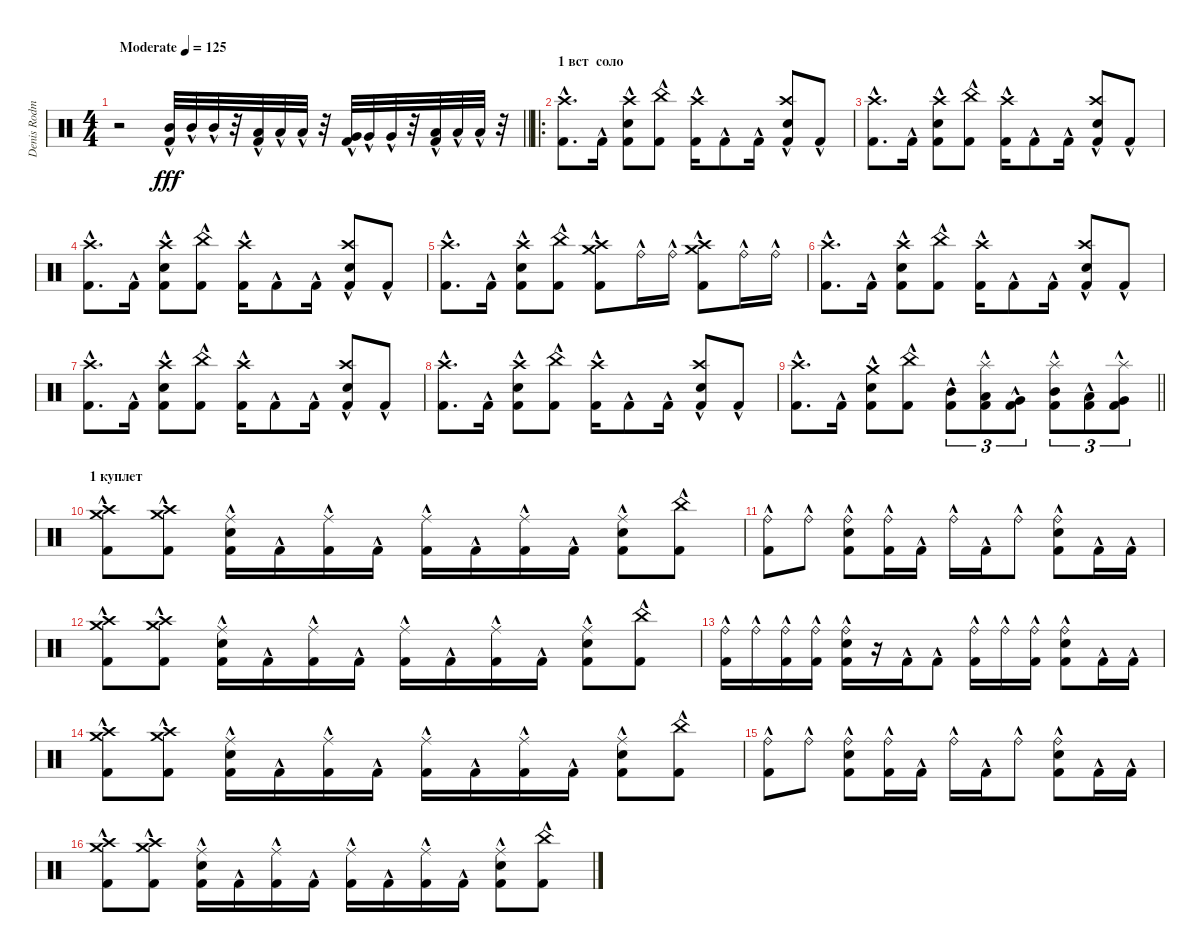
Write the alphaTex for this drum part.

\track ("Denis Rodman" "Denis Rodm") {instrument percussion}
\staff {score}
\articulation defaults
\ts (4 4)
\tempo (125 "Moderate")
\clef neutral
\barLineRight lightlight
\ks c
r.2{dy fff} ("Mid Tom (hit)"{hac} "Kick (hit) 2"{hac}).32 "Mid Tom (hit)"{hac}.32 "Mid Tom (hit)"{hac}.32 r.32 ("Low Tom (hit)"{hac} "Kick (hit) 2"{hac}).32 "Low Tom (hit)"{hac}.32 "Low Tom (hit)"{hac}.32 r.32 ("Very Low Tom (hit)"{hac} "Kick (hit) 2"{hac}).32 "Very Low Tom (hit)"{hac}.32 "Very Low Tom (hit)"{hac}.32 r.32 ("Low Floor Tom (hit)"{hac} "Kick (hit) 2"{hac}).32 "Low Floor Tom (hit)"{hac}.32 "Low Floor Tom (hit)"{hac}.32 r.32 |
\ro
\section ("" "1 вст  соло")
("Kick (hit) 2"{hac} "Crash high (hit)").8{d} "Kick (hit) 2"{hac}.16 ("Kick (hit) 2"{hac} "Snare (hit) 2" "Crash high (hit)").8 ("Kick (hit) 2"{hac} "China (hit)"{hac}).8 ("Kick (hit) 2"{hac} "Crash high (hit)").16 "Kick (hit) 2"{hac}.8 "Kick (hit) 2"{hac}.16 ("Kick (hit) 2"{hac} "Snare (hit) 2" "Crash high (hit)").8 "Kick (hit) 2"{hac}.8 |
("Kick (hit) 2"{hac} "Crash high (hit)").8{d} "Kick (hit) 2"{hac}.16 ("Kick (hit) 2"{hac} "Snare (hit) 2" "Crash high (hit)").8 ("Kick (hit) 2"{hac} "China (hit)"{hac}).8 ("Kick (hit) 2"{hac} "Crash high (hit)").16 "Kick (hit) 2"{hac}.8 "Kick (hit) 2"{hac}.16 ("Kick (hit) 2"{hac} "Snare (hit) 2" "Crash high (hit)").8 "Kick (hit) 2"{hac}.8 |
("Kick (hit) 2"{hac} "Crash high (hit)").8{d} "Kick (hit) 2"{hac}.16 ("Kick (hit) 2"{hac} "Snare (hit) 2" "Crash high (hit)").8 ("Kick (hit) 2"{hac} "China (hit)"{hac}).8 ("Kick (hit) 2"{hac} "Crash high (hit)").16 "Kick (hit) 2"{hac}.8 "Kick (hit) 2"{hac}.16 ("Kick (hit) 2"{hac} "Snare (hit) 2" "Crash high (hit)").8 "Kick (hit) 2"{hac}.8 |
("Kick (hit) 2"{hac} "Crash high (hit)").8{d} "Kick (hit) 2"{hac}.16 ("Kick (hit) 2"{hac} "Snare (hit) 2" "Crash high (hit)").8 ("Kick (hit) 2"{hac} "China (hit)"{hac}).8 ("Crash high (hit)" "Crash medium (hit)" "Kick (hit) 2"{hac}).8 "Ride (bell)"{hac}.16 "Ride (bell)"{hac}.16 ("Crash high (hit)"{hac} "Crash medium (hit)"{hac} "Kick (hit) 2"{hac}).8 "Ride (bell)"{hac}.16 "Ride (bell)"{hac}.16 |
("Kick (hit) 2"{hac} "Crash high (hit)").8{d} "Kick (hit) 2"{hac}.16 ("Kick (hit) 2"{hac} "Snare (hit) 2" "Crash high (hit)").8 ("Kick (hit) 2"{hac} "China (hit)"{hac}).8 ("Kick (hit) 2"{hac} "Crash high (hit)").16 "Kick (hit) 2"{hac}.8 "Kick (hit) 2"{hac}.16 ("Kick (hit) 2"{hac} "Snare (hit) 2" "Crash high (hit)").8 "Kick (hit) 2"{hac}.8 |
("Kick (hit) 2"{hac} "Crash high (hit)").8{d} "Kick (hit) 2"{hac}.16 ("Kick (hit) 2"{hac} "Snare (hit) 2" "Crash high (hit)").8 ("Kick (hit) 2"{hac} "China (hit)"{hac}).8 ("Kick (hit) 2"{hac} "Crash high (hit)").16 "Kick (hit) 2"{hac}.8 "Kick (hit) 2"{hac}.16 ("Kick (hit) 2"{hac} "Snare (hit) 2" "Crash high (hit)").8 "Kick (hit) 2"{hac}.8 |
("Kick (hit) 2"{hac} "Crash high (hit)").8{d} "Kick (hit) 2"{hac}.16 ("Kick (hit) 2"{hac} "Snare (hit) 2" "Crash high (hit)").8 ("Kick (hit) 2"{hac} "China (hit)"{hac}).8 ("Kick (hit) 2"{hac} "Crash high (hit)").16 "Kick (hit) 2"{hac}.8 "Kick (hit) 2"{hac}.16 ("Kick (hit) 2"{hac} "Snare (hit) 2" "Crash high (hit)").8 "Kick (hit) 2"{hac}.8 |
\barLineRight lightlight
("Kick (hit) 2"{hac} "Crash high (hit)").8{d} "Kick (hit) 2"{hac}.16 ("Kick (hit) 2"{hac} "Snare (hit) 2" "Crash medium (hit)").8 ("Kick (hit) 2"{hac} "China (hit)"{hac}).8 ("Kick (hit) 2"{hac} "Mid Tom (hit)").8{tu (3 2)} ("Low Tom (hit)"{hac} "Kick (hit) 2" "Splash (hit)").8{tu (3 2)} ("Very Low Tom (hit)"{hac} "Kick (hit) 2").8{tu (3 2)} ("Kick (hit) 2"{hac} "Mid Tom (hit)" "Splash (hit)").8{tu (3 2)} ("Low Tom (hit)"{hac} "Kick (hit) 2").8{tu (3 2)} ("Very Low Tom (hit)"{hac} "Kick (hit) 2" "Splash (hit)").8{tu (3 2)} |
\section ("" "1 куплет")
("Kick (hit) 2"{hac} "Crash high (hit)" "Crash medium (hit)").8 ("Kick (hit) 2"{hac} "Crash high (hit)" "Crash medium (hit)").8 ("Kick (hit) 2"{hac} "Snare (hit) 2" "Ride (middle)").16 "Kick (hit) 2"{hac}.16 ("Kick (hit) 2"{hac} "Ride (middle)").16 "Kick (hit) 2"{hac}.16 ("Kick (hit) 2"{hac} "Ride (middle)").16 "Kick (hit) 2"{hac}.16 ("Kick (hit) 2"{hac} "Ride (middle)").16 "Kick (hit) 2"{hac}.16 ("Kick (hit) 2"{hac} "Snare (hit) 2" "Ride (middle)").8 ("Kick (hit) 2"{hac} "China (hit)").8 |
("Kick (hit) 2"{hac} "Ride (bell)"{hac}).8 "Ride (bell)"{hac}.8 ("Kick (hit) 2"{hac} "Snare (hit) 2" "Ride (bell)"{hac}).8 ("Kick (hit) 2"{hac} "Ride (bell)"{hac}).16 "Kick (hit) 2"{hac}.16 "Ride (bell)"{hac}.16 "Kick (hit) 2"{hac}.16 "Ride (bell)"{hac}.8 ("Kick (hit) 2"{hac} "Snare (hit) 2" "Ride (bell)"{hac}).8 "Kick (hit) 2"{hac}.16 "Kick (hit) 2"{hac}.16 |
("Kick (hit) 2"{hac} "Crash high (hit)" "Crash medium (hit)").8 ("Kick (hit) 2"{hac} "Crash high (hit)" "Crash medium (hit)").8 ("Kick (hit) 2"{hac} "Snare (hit) 2" "Ride (middle)"{hac}).16 "Kick (hit) 2"{hac}.16 ("Kick (hit) 2"{hac} "Ride (middle)"{hac}).16 "Kick (hit) 2"{hac}.16 ("Kick (hit) 2"{hac} "Ride (middle)"{hac}).16 "Kick (hit) 2"{hac}.16 ("Kick (hit) 2"{hac} "Ride (middle)"{hac}).16 "Kick (hit) 2"{hac}.16 ("Kick (hit) 2"{hac} "Snare (hit) 2" "Ride (middle)"{hac}).8 ("Kick (hit) 2"{hac} "China (hit)").8 |
("Kick (hit) 2"{hac} "Ride (bell)"{hac}).16 "Ride (bell)"{hac}.16 ("Kick (hit) 2"{hac} "Ride (bell)"{hac}).16 ("Kick (hit) 2"{hac} "Ride (bell)"{hac}).16 ("Kick (hit) 2"{hac} "Snare (hit) 2" "Ride (bell)"{hac}).16 r.16 "Kick (hit) 2"{hac}.16 "Kick (hit) 2"{hac}.8 ("Kick (hit) 2"{hac} "Ride (bell)"{hac}).16 "Ride (bell)"{hac}.16 ("Kick (hit) 2"{hac} "Ride (bell)"{hac}).16 ("Kick (hit) 2"{hac} "Snare (hit) 2" "Ride (bell)"{hac}).8 "Kick (hit) 2"{hac}.16 "Kick (hit) 2"{hac}.16 |
("Kick (hit) 2"{hac} "Crash high (hit)" "Crash medium (hit)").8 ("Kick (hit) 2"{hac} "Crash high (hit)" "Crash medium (hit)").8 ("Kick (hit) 2"{hac} "Snare (hit) 2" "Ride (middle)"{hac}).16 "Kick (hit) 2"{hac}.16 ("Kick (hit) 2"{hac} "Ride (middle)"{hac}).16 "Kick (hit) 2"{hac}.16 ("Kick (hit) 2"{hac} "Ride (middle)"{hac}).16 "Kick (hit) 2"{hac}.16 ("Kick (hit) 2"{hac} "Ride (middle)"{hac}).16 "Kick (hit) 2"{hac}.16 ("Kick (hit) 2"{hac} "Snare (hit) 2" "Ride (middle)"{hac}).8 ("Kick (hit) 2"{hac} "China (hit)"{hac}).8 |
("Kick (hit) 2"{hac} "Ride (bell)"{hac}).8 "Ride (bell)"{hac}.8 ("Kick (hit) 2"{hac} "Snare (hit) 2" "Ride (bell)"{hac}).8 ("Kick (hit) 2"{hac} "Ride (bell)"{hac}).16 "Kick (hit) 2"{hac}.16 "Ride (bell)"{hac}.16 "Kick (hit) 2"{hac}.16 "Ride (bell)"{hac}.8 ("Kick (hit) 2"{hac} "Snare (hit) 2" "Ride (bell)"{hac}).8 "Kick (hit) 2"{hac}.16 "Kick (hit) 2"{hac}.16 |
("Kick (hit) 2"{hac} "Crash high (hit)" "Crash medium (hit)").8 ("Kick (hit) 2"{hac} "Crash high (hit)" "Crash medium (hit)").8 ("Kick (hit) 2"{hac} "Snare (hit) 2" "Ride (middle)"{hac}).16 "Kick (hit) 2"{hac}.16 ("Kick (hit) 2"{hac} "Ride (middle)"{hac}).16 "Kick (hit) 2"{hac}.16 ("Kick (hit) 2"{hac} "Ride (middle)"{hac}).16 "Kick (hit) 2"{hac}.16 ("Kick (hit) 2"{hac} "Ride (middle)"{hac}).16 "Kick (hit) 2"{hac}.16 ("Kick (hit) 2"{hac} "Snare (hit) 2" "Ride (middle)"{hac}).8 ("Kick (hit) 2"{hac} "China (hit)"{hac}).8
